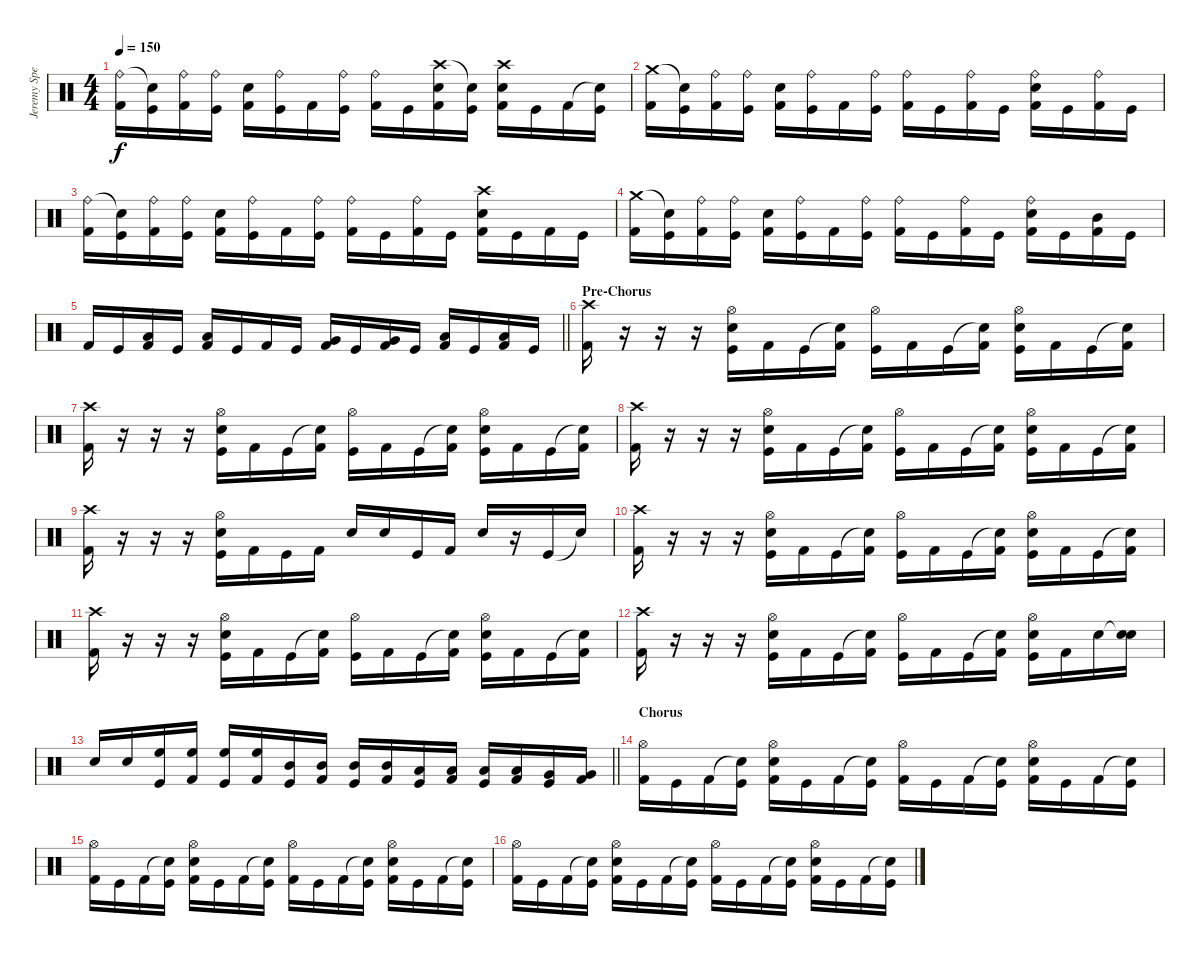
\track ("Jeremy Spencer" "Jeremy Spe") {instrument percussion}
\staff {score}
\articulation defaults
\ts (4 4)
\tempo 150
\clef neutral
\ks c
("Ride (bell)" "Kick (hit) 2").16{dy f} ("Snare (hit)"{t} "Kick (hit)").16 ("Ride (bell)" "Kick (hit) 2").16 ("Ride (bell)" "Kick (hit)").16 ("Snare (hit) 2" "Kick (hit) 2").16 ("Ride (bell)" "Kick (hit)").16 "Kick (hit) 2".16 ("Ride (bell)" "Kick (hit)").16 ("Ride (bell)" "Kick (hit) 2").16 "Kick (hit)".16 ("Crash high (hit)" "Snare (hit) 2" "Kick (hit) 2").16 ("Snare (hit)"{t} "Kick (hit)").16 ("Crash high (hit)" "Snare (hit) 2" "Kick (hit) 2").16 "Kick (hit)".16 "Kick (hit) 2".16 ("Snare (hit)"{t} "Kick (hit)").16 |
("Crash medium (hit)" "Kick (hit) 2").16 ("Snare (hit)"{t} "Kick (hit)").16 ("Ride (bell)" "Kick (hit) 2").16 ("Ride (bell)" "Kick (hit)").16 ("Snare (hit) 2" "Kick (hit) 2").16 ("Ride (bell)" "Kick (hit)").16 "Kick (hit) 2".16 ("Ride (bell)" "Kick (hit)").16 ("Ride (bell)" "Kick (hit) 2").16 "Kick (hit)".16 ("Ride (bell)" "Kick (hit) 2").16 "Kick (hit)".16 ("Ride (bell)" "Snare (hit) 2" "Kick (hit) 2").16 "Kick (hit)".16 ("Ride (bell)" "Kick (hit) 2").16 "Kick (hit)".16 |
("Ride (bell)" "Kick (hit) 2").16 ("Snare (hit)"{t} "Kick (hit)").16 ("Ride (bell)" "Kick (hit) 2").16 ("Ride (bell)" "Kick (hit)").16 ("Snare (hit) 2" "Kick (hit) 2").16 ("Ride (bell)" "Kick (hit)").16 "Kick (hit) 2".16 ("Ride (bell)" "Kick (hit)").16 ("Ride (bell)" "Kick (hit) 2").16 "Kick (hit)".16 ("Ride (bell)" "Kick (hit) 2").16 "Kick (hit)".16 ("Crash high (hit)" "Snare (hit) 2" "Kick (hit) 2").16 "Kick (hit)".16 "Kick (hit) 2".16 "Kick (hit)".16 |
("Crash medium (hit)" "Kick (hit) 2").16 ("Snare (hit)"{t} "Kick (hit)").16 ("Ride (bell)" "Kick (hit) 2").16 ("Ride (bell)" "Kick (hit)").16 ("Snare (hit) 2" "Kick (hit) 2").16 ("Ride (bell)" "Kick (hit)").16 "Kick (hit) 2".16 ("Ride (bell)" "Kick (hit)").16 ("Ride (bell)" "Kick (hit) 2").16 "Kick (hit)".16 ("Ride (bell)" "Kick (hit) 2").16 "Kick (hit)".16 ("Ride (bell)" "Snare (hit) 2" "Kick (hit) 2").16 "Kick (hit)".16 ("Mid Tom (hit)" "Kick (hit) 2").16 "Kick (hit)".16 |
\barLineRight lightlight "Kick (hit) 2".16 "Kick (hit)".16
("Low Tom (hit)" "Kick (hit) 2").16 "Kick (hit)".16 ("Low Tom (hit)" "Kick (hit) 2").16 "Kick (hit)".16 "Kick (hit) 2".16 "Kick (hit)".16 ("Very Low Tom (hit)" "Kick (hit) 2").16 "Kick (hit)".16 ("Very Low Tom (hit)" "Kick (hit) 2").16 "Kick (hit)".16 ("Low Floor Tom (hit)" "Kick (hit) 2").16 "Kick (hit)".16 ("Low Floor Tom (hit)" "Kick (hit) 2").16 "Kick (hit)".16 |
\section ("" "Pre-Chorus")
("Crash high (hit)" "Kick (hit) 2").16 r.16 r.16 r.16 ("Hi-Hat (open)" "Snare (hit) 2" "Kick (hit)").16 "Kick (hit) 2".16 "Kick (hit)".16 ("Snare (hit)"{t} "Kick (hit) 2").16 ("Hi-Hat (open)" "Kick (hit)").16 "Kick (hit) 2".16 "Kick (hit)".16 ("Snare (hit)"{t} "Kick (hit) 2").16 ("Hi-Hat (open)" "Snare (hit) 2" "Kick (hit)").16 "Kick (hit) 2".16 "Kick (hit)".16 ("Snare (hit)"{t} "Kick (hit) 2").16 |
("Crash high (hit)" "Kick (hit) 2").16 r.16 r.16 r.16 ("Hi-Hat (open)" "Snare (hit) 2" "Kick (hit)").16 "Kick (hit) 2".16 "Kick (hit)".16 ("Snare (hit)"{t} "Kick (hit) 2").16 ("Hi-Hat (open)" "Kick (hit)").16 "Kick (hit) 2".16 "Kick (hit)".16 ("Snare (hit)"{t} "Kick (hit) 2").16 ("Hi-Hat (open)" "Snare (hit) 2" "Kick (hit)").16 "Kick (hit) 2".16 "Kick (hit)".16 ("Snare (hit)"{t} "Kick (hit) 2").16 |
("Crash high (hit)" "Kick (hit) 2").16 r.16 r.16 r.16 ("Hi-Hat (open)" "Snare (hit) 2" "Kick (hit)").16 "Kick (hit) 2".16 "Kick (hit)".16 ("Snare (hit)"{t} "Kick (hit) 2").16 ("Hi-Hat (open)" "Kick (hit)").16 "Kick (hit) 2".16 "Kick (hit)".16 ("Snare (hit)"{t} "Kick (hit) 2").16 ("Hi-Hat (open)" "Snare (hit) 2" "Kick (hit)").16 "Kick (hit) 2".16 "Kick (hit)".16 ("Snare (hit)"{t} "Kick (hit) 2").16 |
("Crash high (hit)" "Kick (hit) 2").16 r.16 r.16 r.16 ("Hi-Hat (open)" "Snare (hit) 2" "Kick (hit)").16 "Kick (hit) 2".16 "Kick (hit)".16 "Kick (hit) 2".16 "Snare (hit) 2".16 "Snare (hit) 2".16 "Kick (hit)".16 "Kick (hit) 2".16 "Snare (hit) 2".16 r.16 "Kick (hit)".16 "Snare (hit)"{t}.16 |
("Crash high (hit)" "Kick (hit) 2").16 r.16 r.16 r.16 ("Hi-Hat (open)" "Snare (hit) 2" "Kick (hit)").16 "Kick (hit) 2".16 "Kick (hit)".16 ("Snare (hit)"{t} "Kick (hit) 2").16 ("Hi-Hat (open)" "Kick (hit)").16 "Kick (hit) 2".16 "Kick (hit)".16 ("Snare (hit)"{t} "Kick (hit) 2").16 ("Hi-Hat (open)" "Snare (hit) 2" "Kick (hit)").16 "Kick (hit) 2".16 "Kick (hit)".16 ("Snare (hit)"{t} "Kick (hit) 2").16 |
("Crash high (hit)" "Kick (hit) 2").16 r.16 r.16 r.16 ("Hi-Hat (open)" "Snare (hit) 2" "Kick (hit)").16 "Kick (hit) 2".16 "Kick (hit)".16 ("Snare (hit)"{t} "Kick (hit) 2").16 ("Hi-Hat (open)" "Kick (hit)").16 "Kick (hit) 2".16 "Kick (hit)".16 ("Snare (hit)"{t} "Kick (hit) 2").16 ("Hi-Hat (open)" "Snare (hit) 2" "Kick (hit)").16 "Kick (hit) 2".16 "Kick (hit)".16 ("Snare (hit)"{t} "Kick (hit) 2").16 |
("Crash high (hit)" "Kick (hit) 2").16 r.16 r.16 r.16 ("Hi-Hat (open)" "Snare (hit) 2" "Kick (hit)").16 "Kick (hit) 2".16 "Kick (hit)".16 ("Snare (hit)"{t} "Kick (hit) 2").16 ("Hi-Hat (open)" "Kick (hit)").16 "Kick (hit) 2".16 "Kick (hit)".16 ("Snare (hit)"{t} "Kick (hit) 2").16 ("Hi-Hat (open)" "Snare (hit) 2" "Kick (hit)").16 "Kick (hit) 2".16 "Snare (hit) 2".16 ("Snare (hit)"{t} "Snare (hit) 2").16 |
\barLineRight lightlight "Snare (hit) 2".16 "Snare (hit) 2".16
("High Floor Tom (hit)" "Kick (hit)").16 ("High Floor Tom (hit)" "Kick (hit) 2").16 ("High Floor Tom (hit)" "Kick (hit)").16 ("High Floor Tom (hit)" "Kick (hit) 2").16 ("Mid Tom (hit)" "Kick (hit)").16 ("Mid Tom (hit)" "Kick (hit) 2").16 ("Mid Tom (hit)" "Kick (hit)").16 ("Mid Tom (hit)" "Kick (hit) 2").16 ("Low Tom (hit)" "Kick (hit)").16 ("Low Tom (hit)" "Kick (hit) 2").16 ("Low Tom (hit)" "Kick (hit)").16 ("Low Tom (hit)" "Kick (hit) 2").16 ("Very Low Tom (hit)" "Kick (hit)").16 ("Very Low Tom (hit)" "Kick (hit) 2").16 |
\section ("" "Chorus")
("Hi-Hat (open)" "Kick (hit) 2").16 "Kick (hit)".16 "Kick (hit) 2".16 ("Snare (hit)"{t} "Kick (hit)").16 ("Hi-Hat (open)" "Snare (hit) 2" "Kick (hit) 2").16 "Kick (hit)".16 "Kick (hit) 2".16 ("Snare (hit)"{t} "Kick (hit)").16 ("Hi-Hat (open)" "Kick (hit) 2").16 "Kick (hit)".16 "Kick (hit) 2".16 ("Snare (hit)"{t} "Kick (hit)").16 ("Hi-Hat (open)" "Snare (hit) 2" "Kick (hit) 2").16 "Kick (hit)".16 "Kick (hit) 2".16 ("Snare (hit)"{t} "Kick (hit)").16 |
("Hi-Hat (open)" "Kick (hit) 2").16 "Kick (hit)".16 "Kick (hit) 2".16 ("Snare (hit)"{t} "Kick (hit)").16 ("Hi-Hat (open)" "Snare (hit) 2" "Kick (hit) 2").16 "Kick (hit)".16 "Kick (hit) 2".16 ("Snare (hit)"{t} "Kick (hit)").16 ("Hi-Hat (open)" "Kick (hit) 2").16 "Kick (hit)".16 "Kick (hit) 2".16 ("Snare (hit)"{t} "Kick (hit)").16 ("Hi-Hat (open)" "Snare (hit) 2" "Kick (hit) 2").16 "Kick (hit)".16 "Kick (hit) 2".16 ("Snare (hit)"{t} "Kick (hit)").16 |
("Hi-Hat (open)" "Kick (hit) 2").16 "Kick (hit)".16 "Kick (hit) 2".16 ("Snare (hit)"{t} "Kick (hit)").16 ("Hi-Hat (open)" "Snare (hit) 2" "Kick (hit) 2").16 "Kick (hit)".16 "Kick (hit) 2".16 ("Snare (hit)"{t} "Kick (hit)").16 ("Hi-Hat (open)" "Kick (hit) 2").16 "Kick (hit)".16 "Kick (hit) 2".16 ("Snare (hit)"{t} "Kick (hit)").16 ("Hi-Hat (open)" "Snare (hit) 2" "Kick (hit) 2").16 "Kick (hit)".16 "Kick (hit) 2".16 ("Snare (hit)"{t} "Kick (hit)").16
